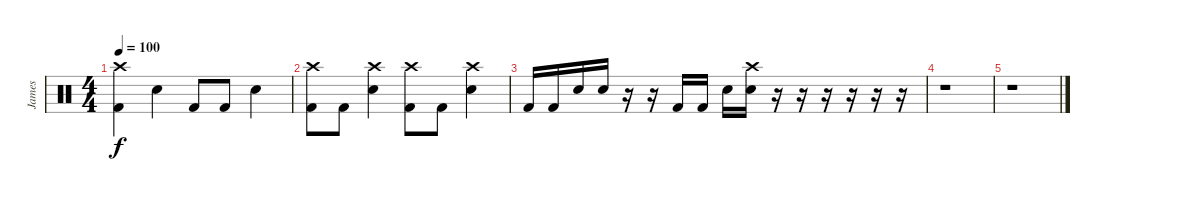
\track ("James" "James") {instrument percussion}
\staff {score}
\articulation defaults
\ts (4 4)
\tempo 100
\clef neutral
\ks c
("Kick (hit) 2" "Crash high (hit)").4{dy f} "Electric Snare (hit)".4 "Kick (hit) 2".8 "Kick (hit) 2".8 "Electric Snare (hit)".4 |
("Kick (hit) 2" "Crash high (hit)").8 "Kick (hit) 2".8 ("Electric Snare (hit)" "Crash high (hit)").4 ("Kick (hit) 2" "Crash high (hit)").8 "Kick (hit) 2".8 ("Electric Snare (hit)" "Crash high (hit)").4 |
"Kick (hit) 2".16 "Kick (hit) 2".16 "Electric Snare (hit)".16 "Electric Snare (hit)".16 r.16 r.16 "Kick (hit) 2".16 "Kick (hit) 2".16 "Electric Snare (hit)".16 ("Electric Snare (hit)" "Crash high (hit)").16 r.16 r.16 r.16 r.16 r.16 r.16 |
r.1 |
r.1
